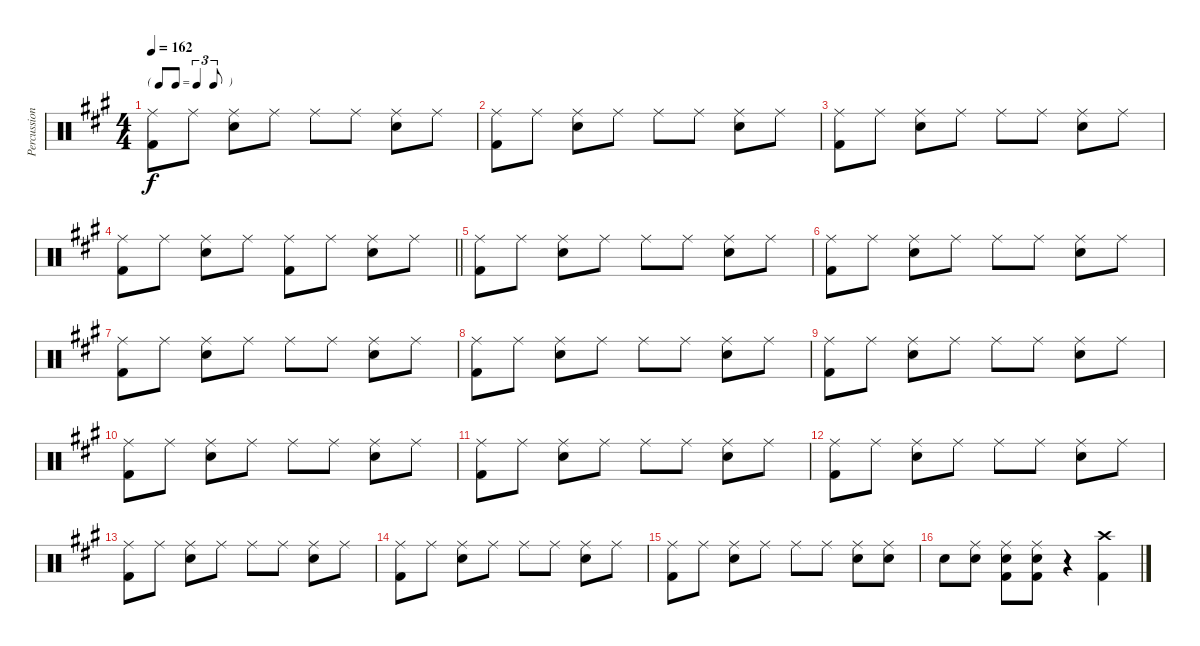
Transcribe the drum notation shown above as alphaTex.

\track ("Percussion" "Percussion") {instrument percussion}
\staff {score}
\articulation defaults
\ts (4 4)
\tf triplet8th
\tempo 162
\clef neutral
\ks a
("Ride (middle)" "Kick (hit) 2").8{dy f} "Ride (middle)".8 ("Ride (middle)" "Snare (hit) 2").8 "Ride (middle)".8 "Ride (middle)".8 "Ride (middle)".8 ("Ride (middle)" "Snare (hit) 2").8 "Ride (middle)".8 |
("Ride (middle)" "Kick (hit) 2").8 "Ride (middle)".8 ("Ride (middle)" "Snare (hit) 2").8 "Ride (middle)".8 "Ride (middle)".8 "Ride (middle)".8 ("Ride (middle)" "Snare (hit) 2").8 "Ride (middle)".8 |
("Ride (middle)" "Kick (hit) 2").8 "Ride (middle)".8 ("Ride (middle)" "Snare (hit) 2").8 "Ride (middle)".8 "Ride (middle)".8 "Ride (middle)".8 ("Ride (middle)" "Snare (hit) 2").8 "Ride (middle)".8 |
\barLineRight lightlight
("Ride (middle)" "Kick (hit) 2").8 "Ride (middle)".8 ("Ride (middle)" "Snare (hit) 2").8 "Ride (middle)".8 ("Ride (middle)" "Kick (hit) 2").8 "Ride (middle)".8 ("Ride (middle)" "Snare (hit) 2").8 "Ride (middle)".8 |
("Ride (middle)" "Kick (hit) 2").8 "Ride (middle)".8 ("Ride (middle)" "Snare (hit) 2").8 "Ride (middle)".8 "Ride (middle)".8 "Ride (middle)".8 ("Ride (middle)" "Snare (hit) 2").8 "Ride (middle)".8 |
("Ride (middle)" "Kick (hit) 2").8 "Ride (middle)".8 ("Ride (middle)" "Snare (hit) 2").8 "Ride (middle)".8 "Ride (middle)".8 "Ride (middle)".8 ("Ride (middle)" "Snare (hit) 2").8 "Ride (middle)".8 |
("Ride (middle)" "Kick (hit) 2").8 "Ride (middle)".8 ("Ride (middle)" "Snare (hit) 2").8 "Ride (middle)".8 "Ride (middle)".8 "Ride (middle)".8 ("Ride (middle)" "Snare (hit) 2").8 "Ride (middle)".8 |
("Ride (middle)" "Kick (hit) 2").8 "Ride (middle)".8 ("Ride (middle)" "Snare (hit) 2").8 "Ride (middle)".8 "Ride (middle)".8 "Ride (middle)".8 ("Ride (middle)" "Snare (hit) 2").8 "Ride (middle)".8 |
("Ride (middle)" "Kick (hit) 2").8 "Ride (middle)".8 ("Ride (middle)" "Snare (hit) 2").8 "Ride (middle)".8 "Ride (middle)".8 "Ride (middle)".8 ("Ride (middle)" "Snare (hit) 2").8 "Ride (middle)".8 |
("Ride (middle)" "Kick (hit) 2").8 "Ride (middle)".8 ("Ride (middle)" "Snare (hit) 2").8 "Ride (middle)".8 "Ride (middle)".8 "Ride (middle)".8 ("Ride (middle)" "Snare (hit) 2").8 "Ride (middle)".8 |
("Ride (middle)" "Kick (hit) 2").8 "Ride (middle)".8 ("Ride (middle)" "Snare (hit) 2").8 "Ride (middle)".8 "Ride (middle)".8 "Ride (middle)".8 ("Ride (middle)" "Snare (hit) 2").8 "Ride (middle)".8 |
("Ride (middle)" "Kick (hit) 2").8 "Ride (middle)".8 ("Ride (middle)" "Snare (hit) 2").8 "Ride (middle)".8 "Ride (middle)".8 "Ride (middle)".8 ("Ride (middle)" "Snare (hit) 2").8 "Ride (middle)".8 |
("Ride (middle)" "Kick (hit) 2").8 "Ride (middle)".8 ("Ride (middle)" "Snare (hit) 2").8 "Ride (middle)".8 "Ride (middle)".8 "Ride (middle)".8 ("Ride (middle)" "Snare (hit) 2").8 "Ride (middle)".8 |
("Ride (middle)" "Kick (hit) 2").8 "Ride (middle)".8 ("Ride (middle)" "Snare (hit) 2").8 "Ride (middle)".8 "Ride (middle)".8 "Ride (middle)".8 ("Ride (middle)" "Snare (hit) 2").8 "Ride (middle)".8 |
("Ride (middle)" "Kick (hit) 2").8 "Ride (middle)".8 ("Ride (middle)" "Snare (hit) 2").8 "Ride (middle)".8 "Ride (middle)".8 "Ride (middle)".8 ("Ride (middle)" "Snare (hit) 2").8 ("Ride (middle)" "Snare (hit) 2").8 |
"Snare (hit) 2".8 ("Ride (middle)" "Snare (hit) 2").8 ("Ride (middle)" "Snare (hit) 2" "Kick (hit) 2").8 ("Ride (middle)" "Snare (hit) 2" "Kick (hit) 2").8 r.4 ("Crash high (hit)" "Kick (hit) 2").4
